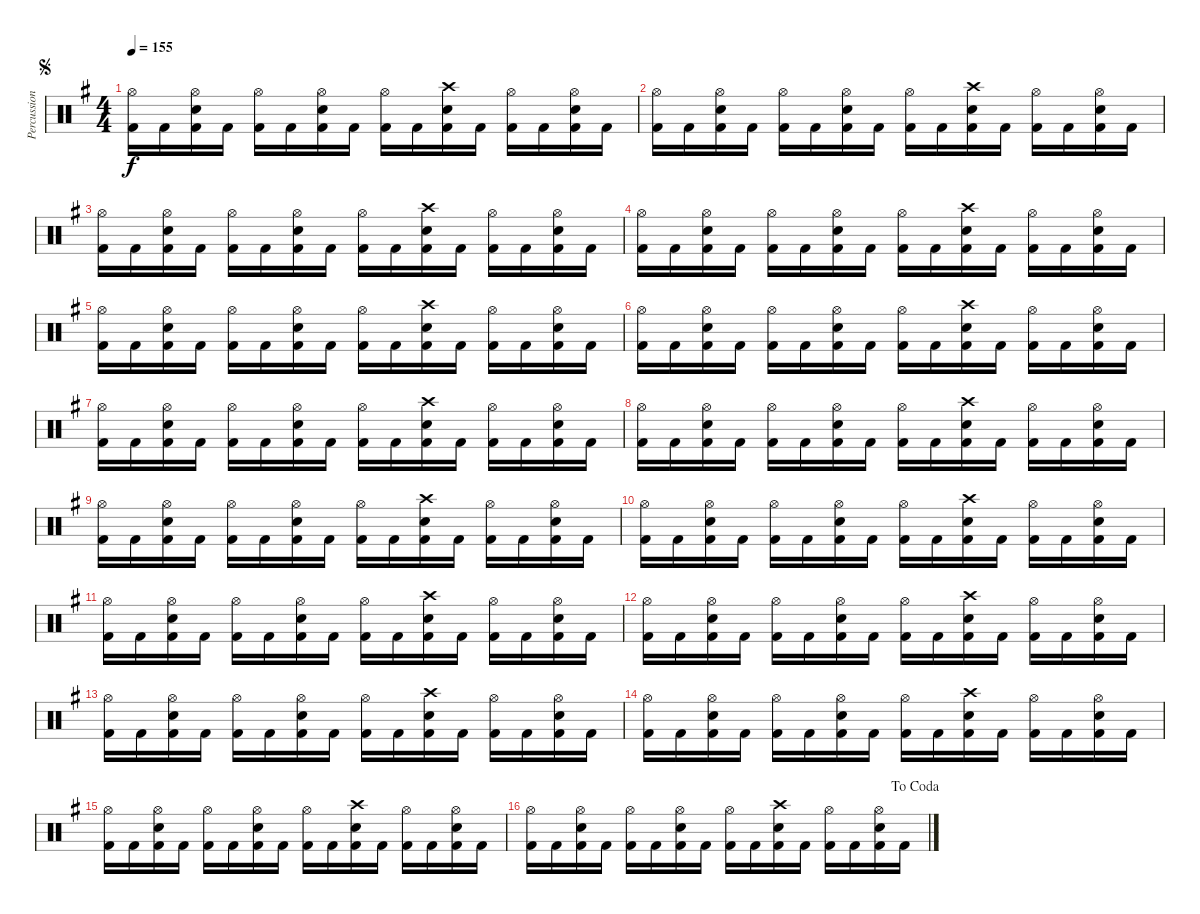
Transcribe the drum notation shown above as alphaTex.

\track ("Percussion" "Percussion") {instrument percussion}
\staff {score}
\articulation defaults
\ts (4 4)
\jump segno
\tempo 155
\clef neutral
\ks eminor
("Hi-Hat (open)" "Kick (hit) 2").16{dy f} "Kick (hit) 2".16 ("Hi-Hat (open)" "Electric Snare (hit)" "Kick (hit) 2").16 "Kick (hit) 2".16 ("Hi-Hat (open)" "Kick (hit) 2").16 "Kick (hit) 2".16 ("Hi-Hat (open)" "Electric Snare (hit)" "Kick (hit) 2").16 "Kick (hit) 2".16 ("Hi-Hat (open)" "Kick (hit) 2").16 "Kick (hit) 2".16 ("Crash high (hit)" "Electric Snare (hit)" "Kick (hit) 2").16 "Kick (hit) 2".16 ("Hi-Hat (open)" "Kick (hit) 2").16 "Kick (hit) 2".16 ("Hi-Hat (open)" "Electric Snare (hit)" "Kick (hit) 2").16 "Kick (hit) 2".16 |
("Hi-Hat (open)" "Kick (hit) 2").16 "Kick (hit) 2".16 ("Hi-Hat (open)" "Electric Snare (hit)" "Kick (hit) 2").16 "Kick (hit) 2".16 ("Hi-Hat (open)" "Kick (hit) 2").16 "Kick (hit) 2".16 ("Hi-Hat (open)" "Electric Snare (hit)" "Kick (hit) 2").16 "Kick (hit) 2".16 ("Hi-Hat (open)" "Kick (hit) 2").16 "Kick (hit) 2".16 ("Crash high (hit)" "Electric Snare (hit)" "Kick (hit) 2").16 "Kick (hit) 2".16 ("Hi-Hat (open)" "Kick (hit) 2").16 "Kick (hit) 2".16 ("Hi-Hat (open)" "Electric Snare (hit)" "Kick (hit) 2").16 "Kick (hit) 2".16 |
("Hi-Hat (open)" "Kick (hit) 2").16 "Kick (hit) 2".16 ("Hi-Hat (open)" "Electric Snare (hit)" "Kick (hit) 2").16 "Kick (hit) 2".16 ("Hi-Hat (open)" "Kick (hit) 2").16 "Kick (hit) 2".16 ("Hi-Hat (open)" "Electric Snare (hit)" "Kick (hit) 2").16 "Kick (hit) 2".16 ("Hi-Hat (open)" "Kick (hit) 2").16 "Kick (hit) 2".16 ("Crash high (hit)" "Electric Snare (hit)" "Kick (hit) 2").16 "Kick (hit) 2".16 ("Hi-Hat (open)" "Kick (hit) 2").16 "Kick (hit) 2".16 ("Hi-Hat (open)" "Electric Snare (hit)" "Kick (hit) 2").16 "Kick (hit) 2".16 |
("Hi-Hat (open)" "Kick (hit) 2").16 "Kick (hit) 2".16 ("Hi-Hat (open)" "Electric Snare (hit)" "Kick (hit) 2").16 "Kick (hit) 2".16 ("Hi-Hat (open)" "Kick (hit) 2").16 "Kick (hit) 2".16 ("Hi-Hat (open)" "Electric Snare (hit)" "Kick (hit) 2").16 "Kick (hit) 2".16 ("Hi-Hat (open)" "Kick (hit) 2").16 "Kick (hit) 2".16 ("Crash high (hit)" "Electric Snare (hit)" "Kick (hit) 2").16 "Kick (hit) 2".16 ("Hi-Hat (open)" "Kick (hit) 2").16 "Kick (hit) 2".16 ("Hi-Hat (open)" "Electric Snare (hit)" "Kick (hit) 2").16 "Kick (hit) 2".16 |
("Hi-Hat (open)" "Kick (hit) 2").16 "Kick (hit) 2".16 ("Hi-Hat (open)" "Electric Snare (hit)" "Kick (hit) 2").16 "Kick (hit) 2".16 ("Hi-Hat (open)" "Kick (hit) 2").16 "Kick (hit) 2".16 ("Hi-Hat (open)" "Electric Snare (hit)" "Kick (hit) 2").16 "Kick (hit) 2".16 ("Hi-Hat (open)" "Kick (hit) 2").16 "Kick (hit) 2".16 ("Crash high (hit)" "Electric Snare (hit)" "Kick (hit) 2").16 "Kick (hit) 2".16 ("Hi-Hat (open)" "Kick (hit) 2").16 "Kick (hit) 2".16 ("Hi-Hat (open)" "Electric Snare (hit)" "Kick (hit) 2").16 "Kick (hit) 2".16 |
("Hi-Hat (open)" "Kick (hit) 2").16 "Kick (hit) 2".16 ("Hi-Hat (open)" "Electric Snare (hit)" "Kick (hit) 2").16 "Kick (hit) 2".16 ("Hi-Hat (open)" "Kick (hit) 2").16 "Kick (hit) 2".16 ("Hi-Hat (open)" "Electric Snare (hit)" "Kick (hit) 2").16 "Kick (hit) 2".16 ("Hi-Hat (open)" "Kick (hit) 2").16 "Kick (hit) 2".16 ("Crash high (hit)" "Electric Snare (hit)" "Kick (hit) 2").16 "Kick (hit) 2".16 ("Hi-Hat (open)" "Kick (hit) 2").16 "Kick (hit) 2".16 ("Hi-Hat (open)" "Electric Snare (hit)" "Kick (hit) 2").16 "Kick (hit) 2".16 |
("Hi-Hat (open)" "Kick (hit) 2").16 "Kick (hit) 2".16 ("Hi-Hat (open)" "Electric Snare (hit)" "Kick (hit) 2").16 "Kick (hit) 2".16 ("Hi-Hat (open)" "Kick (hit) 2").16 "Kick (hit) 2".16 ("Hi-Hat (open)" "Electric Snare (hit)" "Kick (hit) 2").16 "Kick (hit) 2".16 ("Hi-Hat (open)" "Kick (hit) 2").16 "Kick (hit) 2".16 ("Crash high (hit)" "Electric Snare (hit)" "Kick (hit) 2").16 "Kick (hit) 2".16 ("Hi-Hat (open)" "Kick (hit) 2").16 "Kick (hit) 2".16 ("Hi-Hat (open)" "Electric Snare (hit)" "Kick (hit) 2").16 "Kick (hit) 2".16 |
("Hi-Hat (open)" "Kick (hit) 2").16 "Kick (hit) 2".16 ("Hi-Hat (open)" "Electric Snare (hit)" "Kick (hit) 2").16 "Kick (hit) 2".16 ("Hi-Hat (open)" "Kick (hit) 2").16 "Kick (hit) 2".16 ("Hi-Hat (open)" "Electric Snare (hit)" "Kick (hit) 2").16 "Kick (hit) 2".16 ("Hi-Hat (open)" "Kick (hit) 2").16 "Kick (hit) 2".16 ("Crash high (hit)" "Electric Snare (hit)" "Kick (hit) 2").16 "Kick (hit) 2".16 ("Hi-Hat (open)" "Kick (hit) 2").16 "Kick (hit) 2".16 ("Hi-Hat (open)" "Electric Snare (hit)" "Kick (hit) 2").16 "Kick (hit) 2".16 |
("Hi-Hat (open)" "Kick (hit) 2").16 "Kick (hit) 2".16 ("Hi-Hat (open)" "Electric Snare (hit)" "Kick (hit) 2").16 "Kick (hit) 2".16 ("Hi-Hat (open)" "Kick (hit) 2").16 "Kick (hit) 2".16 ("Hi-Hat (open)" "Electric Snare (hit)" "Kick (hit) 2").16 "Kick (hit) 2".16 ("Hi-Hat (open)" "Kick (hit) 2").16 "Kick (hit) 2".16 ("Crash high (hit)" "Electric Snare (hit)" "Kick (hit) 2").16 "Kick (hit) 2".16 ("Hi-Hat (open)" "Kick (hit) 2").16 "Kick (hit) 2".16 ("Hi-Hat (open)" "Electric Snare (hit)" "Kick (hit) 2").16 "Kick (hit) 2".16 |
("Hi-Hat (open)" "Kick (hit) 2").16 "Kick (hit) 2".16 ("Hi-Hat (open)" "Electric Snare (hit)" "Kick (hit) 2").16 "Kick (hit) 2".16 ("Hi-Hat (open)" "Kick (hit) 2").16 "Kick (hit) 2".16 ("Hi-Hat (open)" "Electric Snare (hit)" "Kick (hit) 2").16 "Kick (hit) 2".16 ("Hi-Hat (open)" "Kick (hit) 2").16 "Kick (hit) 2".16 ("Crash high (hit)" "Electric Snare (hit)" "Kick (hit) 2").16 "Kick (hit) 2".16 ("Hi-Hat (open)" "Kick (hit) 2").16 "Kick (hit) 2".16 ("Hi-Hat (open)" "Electric Snare (hit)" "Kick (hit) 2").16 "Kick (hit) 2".16 |
("Hi-Hat (open)" "Kick (hit) 2").16 "Kick (hit) 2".16 ("Hi-Hat (open)" "Electric Snare (hit)" "Kick (hit) 2").16 "Kick (hit) 2".16 ("Hi-Hat (open)" "Kick (hit) 2").16 "Kick (hit) 2".16 ("Hi-Hat (open)" "Electric Snare (hit)" "Kick (hit) 2").16 "Kick (hit) 2".16 ("Hi-Hat (open)" "Kick (hit) 2").16 "Kick (hit) 2".16 ("Crash high (hit)" "Electric Snare (hit)" "Kick (hit) 2").16 "Kick (hit) 2".16 ("Hi-Hat (open)" "Kick (hit) 2").16 "Kick (hit) 2".16 ("Hi-Hat (open)" "Electric Snare (hit)" "Kick (hit) 2").16 "Kick (hit) 2".16 |
("Hi-Hat (open)" "Kick (hit) 2").16 "Kick (hit) 2".16 ("Hi-Hat (open)" "Electric Snare (hit)" "Kick (hit) 2").16 "Kick (hit) 2".16 ("Hi-Hat (open)" "Kick (hit) 2").16 "Kick (hit) 2".16 ("Hi-Hat (open)" "Electric Snare (hit)" "Kick (hit) 2").16 "Kick (hit) 2".16 ("Hi-Hat (open)" "Kick (hit) 2").16 "Kick (hit) 2".16 ("Crash high (hit)" "Electric Snare (hit)" "Kick (hit) 2").16 "Kick (hit) 2".16 ("Hi-Hat (open)" "Kick (hit) 2").16 "Kick (hit) 2".16 ("Hi-Hat (open)" "Electric Snare (hit)" "Kick (hit) 2").16 "Kick (hit) 2".16 |
("Hi-Hat (open)" "Kick (hit) 2").16 "Kick (hit) 2".16 ("Hi-Hat (open)" "Electric Snare (hit)" "Kick (hit) 2").16 "Kick (hit) 2".16 ("Hi-Hat (open)" "Kick (hit) 2").16 "Kick (hit) 2".16 ("Hi-Hat (open)" "Electric Snare (hit)" "Kick (hit) 2").16 "Kick (hit) 2".16 ("Hi-Hat (open)" "Kick (hit) 2").16 "Kick (hit) 2".16 ("Crash high (hit)" "Electric Snare (hit)" "Kick (hit) 2").16 "Kick (hit) 2".16 ("Hi-Hat (open)" "Kick (hit) 2").16 "Kick (hit) 2".16 ("Hi-Hat (open)" "Electric Snare (hit)" "Kick (hit) 2").16 "Kick (hit) 2".16 |
("Hi-Hat (open)" "Kick (hit) 2").16 "Kick (hit) 2".16 ("Hi-Hat (open)" "Electric Snare (hit)" "Kick (hit) 2").16 "Kick (hit) 2".16 ("Hi-Hat (open)" "Kick (hit) 2").16 "Kick (hit) 2".16 ("Hi-Hat (open)" "Electric Snare (hit)" "Kick (hit) 2").16 "Kick (hit) 2".16 ("Hi-Hat (open)" "Kick (hit) 2").16 "Kick (hit) 2".16 ("Crash high (hit)" "Electric Snare (hit)" "Kick (hit) 2").16 "Kick (hit) 2".16 ("Hi-Hat (open)" "Kick (hit) 2").16 "Kick (hit) 2".16 ("Hi-Hat (open)" "Electric Snare (hit)" "Kick (hit) 2").16 "Kick (hit) 2".16 |
("Hi-Hat (open)" "Kick (hit) 2").16 "Kick (hit) 2".16 ("Hi-Hat (open)" "Electric Snare (hit)" "Kick (hit) 2").16 "Kick (hit) 2".16 ("Hi-Hat (open)" "Kick (hit) 2").16 "Kick (hit) 2".16 ("Hi-Hat (open)" "Electric Snare (hit)" "Kick (hit) 2").16 "Kick (hit) 2".16 ("Hi-Hat (open)" "Kick (hit) 2").16 "Kick (hit) 2".16 ("Crash high (hit)" "Electric Snare (hit)" "Kick (hit) 2").16 "Kick (hit) 2".16 ("Hi-Hat (open)" "Kick (hit) 2").16 "Kick (hit) 2".16 ("Hi-Hat (open)" "Electric Snare (hit)" "Kick (hit) 2").16 "Kick (hit) 2".16 |
\jump dacoda
("Hi-Hat (open)" "Kick (hit) 2").16 "Kick (hit) 2".16 ("Hi-Hat (open)" "Electric Snare (hit)" "Kick (hit) 2").16 "Kick (hit) 2".16 ("Hi-Hat (open)" "Kick (hit) 2").16 "Kick (hit) 2".16 ("Hi-Hat (open)" "Electric Snare (hit)" "Kick (hit) 2").16 "Kick (hit) 2".16 ("Hi-Hat (open)" "Kick (hit) 2").16 "Kick (hit) 2".16 ("Crash high (hit)" "Electric Snare (hit)" "Kick (hit) 2").16 "Kick (hit) 2".16 ("Hi-Hat (open)" "Kick (hit) 2").16 "Kick (hit) 2".16 ("Hi-Hat (open)" "Electric Snare (hit)" "Kick (hit) 2").16 "Kick (hit) 2".16
